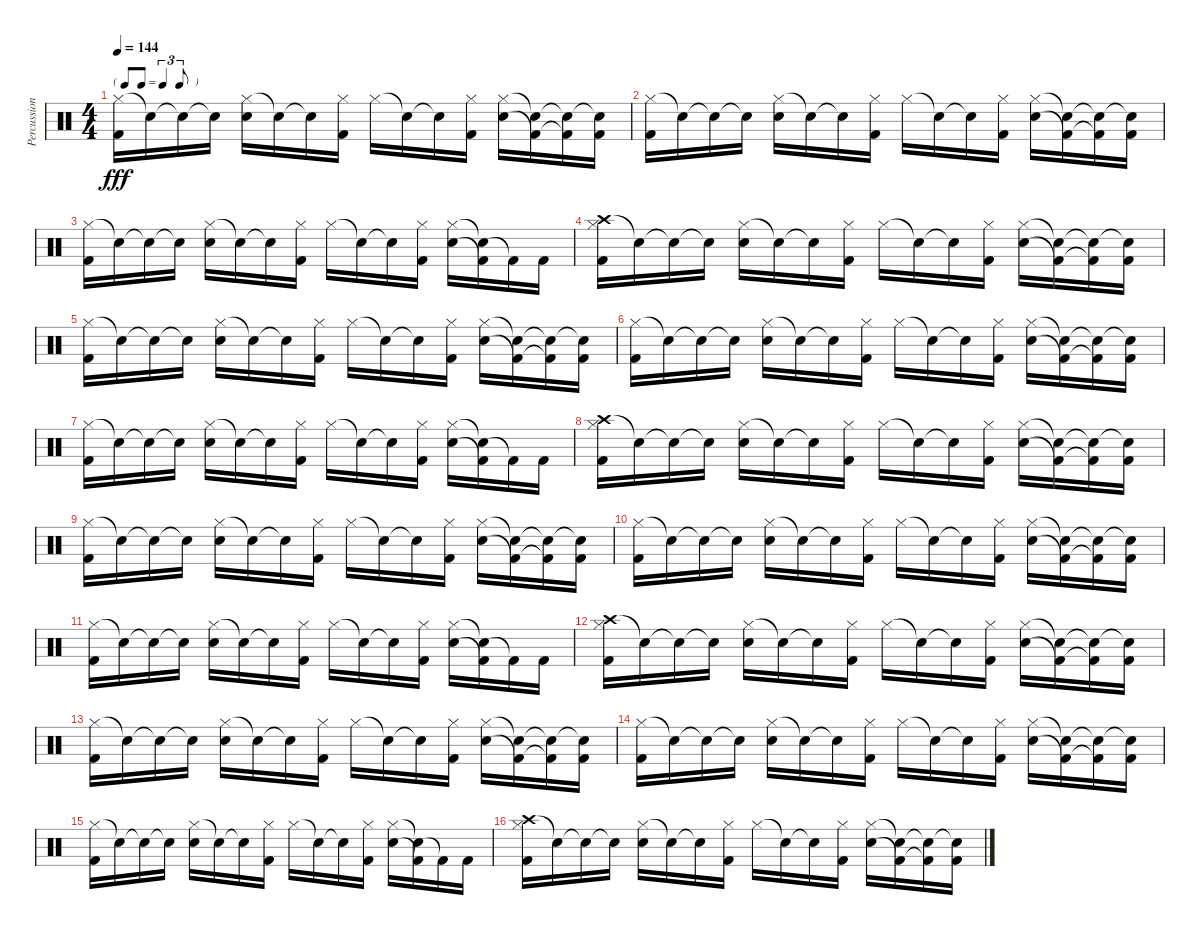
\track ("Percussion" "Percussion") {instrument percussion}
\staff {score}
\articulation defaults
\ts (4 4)
\tf triplet8th
\tempo 144
\clef neutral
\ks c
("Hi-Hat (closed)" "Kick (hit) 2").16{dy fff} "Snare (hit)"{t}.16 "Snare (hit)"{t}.16 "Snare (hit)"{t}.16 ("Hi-Hat (closed)" "Electric Snare (hit)").16 "Snare (hit)"{t}.16 "Snare (hit)"{t}.16 ("Hi-Hat (closed)" "Kick (hit) 2").16 "Hi-Hat (closed)".16 "Snare (hit)"{t}.16 "Snare (hit)"{t}.16 ("Hi-Hat (closed)" "Kick (hit) 2").16 ("Hi-Hat (closed)" "Electric Snare (hit)").16 ("Snare (hit)"{t} "Kick (hit) 2"{t}).16 ("Snare (hit)"{t} "Kick (hit) 2"{t}).16 ("Snare (hit)"{t} "Kick (hit) 2").16 |
("Hi-Hat (closed)" "Kick (hit) 2").16 "Snare (hit)"{t}.16 "Snare (hit)"{t}.16 "Snare (hit)"{t}.16 ("Hi-Hat (closed)" "Electric Snare (hit)").16 "Snare (hit)"{t}.16 "Snare (hit)"{t}.16 ("Hi-Hat (closed)" "Kick (hit) 2").16 "Hi-Hat (closed)".16 "Snare (hit)"{t}.16 "Snare (hit)"{t}.16 ("Hi-Hat (closed)" "Kick (hit) 2").16 ("Hi-Hat (closed)" "Electric Snare (hit)").16 ("Snare (hit)"{t} "Kick (hit) 2"{t}).16 ("Snare (hit)"{t} "Kick (hit) 2"{t}).16 ("Snare (hit)"{t} "Kick (hit) 2").16 |
("Hi-Hat (closed)" "Kick (hit) 2").16 "Snare (hit)"{t}.16 "Snare (hit)"{t}.16 "Snare (hit)"{t}.16 ("Hi-Hat (closed)" "Electric Snare (hit)").16 "Snare (hit)"{t}.16 "Snare (hit)"{t}.16 ("Hi-Hat (closed)" "Kick (hit) 2").16 "Hi-Hat (closed)".16 "Snare (hit)"{t}.16 "Snare (hit)"{t}.16 ("Hi-Hat (closed)" "Kick (hit) 2").16 ("Hi-Hat (closed)" "Electric Snare (hit)").16 ("Snare (hit)"{t} "Kick (hit) 2"{t}).16 "Kick (hit) 2"{t}.16 "Kick (hit) 2".16 |
("Crash high (hit)" "Hi-Hat (closed)" "Kick (hit) 2").16 "Snare (hit)"{t}.16 "Snare (hit)"{t}.16 "Snare (hit)"{t}.16 ("Hi-Hat (closed)" "Electric Snare (hit)").16 "Snare (hit)"{t}.16 "Snare (hit)"{t}.16 ("Hi-Hat (closed)" "Kick (hit) 2").16 "Hi-Hat (closed)".16 "Snare (hit)"{t}.16 "Snare (hit)"{t}.16 ("Hi-Hat (closed)" "Kick (hit) 2").16 ("Hi-Hat (closed)" "Electric Snare (hit)").16 ("Snare (hit)"{t} "Kick (hit) 2"{t}).16 ("Snare (hit)"{t} "Kick (hit) 2"{t}).16 ("Snare (hit)"{t} "Kick (hit) 2").16 |
("Hi-Hat (closed)" "Kick (hit) 2").16 "Snare (hit)"{t}.16 "Snare (hit)"{t}.16 "Snare (hit)"{t}.16 ("Hi-Hat (closed)" "Electric Snare (hit)").16 "Snare (hit)"{t}.16 "Snare (hit)"{t}.16 ("Hi-Hat (closed)" "Kick (hit) 2").16 "Hi-Hat (closed)".16 "Snare (hit)"{t}.16 "Snare (hit)"{t}.16 ("Hi-Hat (closed)" "Kick (hit) 2").16 ("Hi-Hat (closed)" "Electric Snare (hit)").16 ("Snare (hit)"{t} "Kick (hit) 2"{t}).16 ("Snare (hit)"{t} "Kick (hit) 2"{t}).16 ("Snare (hit)"{t} "Kick (hit) 2").16 |
("Hi-Hat (closed)" "Kick (hit) 2").16 "Snare (hit)"{t}.16 "Snare (hit)"{t}.16 "Snare (hit)"{t}.16 ("Hi-Hat (closed)" "Electric Snare (hit)").16 "Snare (hit)"{t}.16 "Snare (hit)"{t}.16 ("Hi-Hat (closed)" "Kick (hit) 2").16 "Hi-Hat (closed)".16 "Snare (hit)"{t}.16 "Snare (hit)"{t}.16 ("Hi-Hat (closed)" "Kick (hit) 2").16 ("Hi-Hat (closed)" "Electric Snare (hit)").16 ("Snare (hit)"{t} "Kick (hit) 2"{t}).16 ("Snare (hit)"{t} "Kick (hit) 2"{t}).16 ("Snare (hit)"{t} "Kick (hit) 2").16 |
("Hi-Hat (closed)" "Kick (hit) 2").16 "Snare (hit)"{t}.16 "Snare (hit)"{t}.16 "Snare (hit)"{t}.16 ("Hi-Hat (closed)" "Electric Snare (hit)").16 "Snare (hit)"{t}.16 "Snare (hit)"{t}.16 ("Hi-Hat (closed)" "Kick (hit) 2").16 "Hi-Hat (closed)".16 "Snare (hit)"{t}.16 "Snare (hit)"{t}.16 ("Hi-Hat (closed)" "Kick (hit) 2").16 ("Hi-Hat (closed)" "Electric Snare (hit)").16 ("Snare (hit)"{t} "Kick (hit) 2"{t}).16 "Kick (hit) 2"{t}.16 "Kick (hit) 2".16 |
("Crash high (hit)" "Hi-Hat (closed)" "Kick (hit) 2").16 "Snare (hit)"{t}.16 "Snare (hit)"{t}.16 "Snare (hit)"{t}.16 ("Hi-Hat (closed)" "Electric Snare (hit)").16 "Snare (hit)"{t}.16 "Snare (hit)"{t}.16 ("Hi-Hat (closed)" "Kick (hit) 2").16 "Hi-Hat (closed)".16 "Snare (hit)"{t}.16 "Snare (hit)"{t}.16 ("Hi-Hat (closed)" "Kick (hit) 2").16 ("Hi-Hat (closed)" "Electric Snare (hit)").16 ("Snare (hit)"{t} "Kick (hit) 2"{t}).16 ("Snare (hit)"{t} "Kick (hit) 2"{t}).16 ("Snare (hit)"{t} "Kick (hit) 2").16 |
("Hi-Hat (closed)" "Kick (hit) 2").16 "Snare (hit)"{t}.16 "Snare (hit)"{t}.16 "Snare (hit)"{t}.16 ("Hi-Hat (closed)" "Electric Snare (hit)").16 "Snare (hit)"{t}.16 "Snare (hit)"{t}.16 ("Hi-Hat (closed)" "Kick (hit) 2").16 "Hi-Hat (closed)".16 "Snare (hit)"{t}.16 "Snare (hit)"{t}.16 ("Hi-Hat (closed)" "Kick (hit) 2").16 ("Hi-Hat (closed)" "Electric Snare (hit)").16 ("Snare (hit)"{t} "Kick (hit) 2"{t}).16 ("Snare (hit)"{t} "Kick (hit) 2"{t}).16 ("Snare (hit)"{t} "Kick (hit) 2").16 |
("Hi-Hat (closed)" "Kick (hit) 2").16 "Snare (hit)"{t}.16 "Snare (hit)"{t}.16 "Snare (hit)"{t}.16 ("Hi-Hat (closed)" "Electric Snare (hit)").16 "Snare (hit)"{t}.16 "Snare (hit)"{t}.16 ("Hi-Hat (closed)" "Kick (hit) 2").16 "Hi-Hat (closed)".16 "Snare (hit)"{t}.16 "Snare (hit)"{t}.16 ("Hi-Hat (closed)" "Kick (hit) 2").16 ("Hi-Hat (closed)" "Electric Snare (hit)").16 ("Snare (hit)"{t} "Kick (hit) 2"{t}).16 ("Snare (hit)"{t} "Kick (hit) 2"{t}).16 ("Snare (hit)"{t} "Kick (hit) 2").16 |
("Hi-Hat (closed)" "Kick (hit) 2").16 "Snare (hit)"{t}.16 "Snare (hit)"{t}.16 "Snare (hit)"{t}.16 ("Hi-Hat (closed)" "Electric Snare (hit)").16 "Snare (hit)"{t}.16 "Snare (hit)"{t}.16 ("Hi-Hat (closed)" "Kick (hit) 2").16 "Hi-Hat (closed)".16 "Snare (hit)"{t}.16 "Snare (hit)"{t}.16 ("Hi-Hat (closed)" "Kick (hit) 2").16 ("Hi-Hat (closed)" "Electric Snare (hit)").16 ("Snare (hit)"{t} "Kick (hit) 2"{t}).16 "Kick (hit) 2"{t}.16 "Kick (hit) 2".16 |
("Crash high (hit)" "Hi-Hat (closed)" "Kick (hit) 2").16 "Snare (hit)"{t}.16 "Snare (hit)"{t}.16 "Snare (hit)"{t}.16 ("Hi-Hat (closed)" "Electric Snare (hit)").16 "Snare (hit)"{t}.16 "Snare (hit)"{t}.16 ("Hi-Hat (closed)" "Kick (hit) 2").16 "Hi-Hat (closed)".16 "Snare (hit)"{t}.16 "Snare (hit)"{t}.16 ("Hi-Hat (closed)" "Kick (hit) 2").16 ("Hi-Hat (closed)" "Electric Snare (hit)").16 ("Snare (hit)"{t} "Kick (hit) 2"{t}).16 ("Snare (hit)"{t} "Kick (hit) 2"{t}).16 ("Snare (hit)"{t} "Kick (hit) 2").16 |
("Hi-Hat (closed)" "Kick (hit) 2").16 "Snare (hit)"{t}.16 "Snare (hit)"{t}.16 "Snare (hit)"{t}.16 ("Hi-Hat (closed)" "Electric Snare (hit)").16 "Snare (hit)"{t}.16 "Snare (hit)"{t}.16 ("Hi-Hat (closed)" "Kick (hit) 2").16 "Hi-Hat (closed)".16 "Snare (hit)"{t}.16 "Snare (hit)"{t}.16 ("Hi-Hat (closed)" "Kick (hit) 2").16 ("Hi-Hat (closed)" "Electric Snare (hit)").16 ("Snare (hit)"{t} "Kick (hit) 2"{t}).16 ("Snare (hit)"{t} "Kick (hit) 2"{t}).16 ("Snare (hit)"{t} "Kick (hit) 2").16 |
("Hi-Hat (closed)" "Kick (hit) 2").16 "Snare (hit)"{t}.16 "Snare (hit)"{t}.16 "Snare (hit)"{t}.16 ("Hi-Hat (closed)" "Electric Snare (hit)").16 "Snare (hit)"{t}.16 "Snare (hit)"{t}.16 ("Hi-Hat (closed)" "Kick (hit) 2").16 "Hi-Hat (closed)".16 "Snare (hit)"{t}.16 "Snare (hit)"{t}.16 ("Hi-Hat (closed)" "Kick (hit) 2").16 ("Hi-Hat (closed)" "Electric Snare (hit)").16 ("Snare (hit)"{t} "Kick (hit) 2"{t}).16 ("Snare (hit)"{t} "Kick (hit) 2"{t}).16 ("Snare (hit)"{t} "Kick (hit) 2").16 |
("Hi-Hat (closed)" "Kick (hit) 2").16 "Snare (hit)"{t}.16 "Snare (hit)"{t}.16 "Snare (hit)"{t}.16 ("Hi-Hat (closed)" "Electric Snare (hit)").16 "Snare (hit)"{t}.16 "Snare (hit)"{t}.16 ("Hi-Hat (closed)" "Kick (hit) 2").16 "Hi-Hat (closed)".16 "Snare (hit)"{t}.16 "Snare (hit)"{t}.16 ("Hi-Hat (closed)" "Kick (hit) 2").16 ("Hi-Hat (closed)" "Electric Snare (hit)").16 ("Snare (hit)"{t} "Kick (hit) 2"{t}).16 "Kick (hit) 2"{t}.16 "Kick (hit) 2".16 |
("Crash high (hit)" "Hi-Hat (closed)" "Kick (hit) 2").16 "Snare (hit)"{t}.16 "Snare (hit)"{t}.16 "Snare (hit)"{t}.16 ("Hi-Hat (closed)" "Electric Snare (hit)").16 "Snare (hit)"{t}.16 "Snare (hit)"{t}.16 ("Hi-Hat (closed)" "Kick (hit) 2").16 "Hi-Hat (closed)".16 "Snare (hit)"{t}.16 "Snare (hit)"{t}.16 ("Hi-Hat (closed)" "Kick (hit) 2").16 ("Hi-Hat (closed)" "Electric Snare (hit)").16 ("Snare (hit)"{t} "Kick (hit) 2"{t}).16 ("Snare (hit)"{t} "Kick (hit) 2"{t}).16 ("Snare (hit)"{t} "Kick (hit) 2").16
